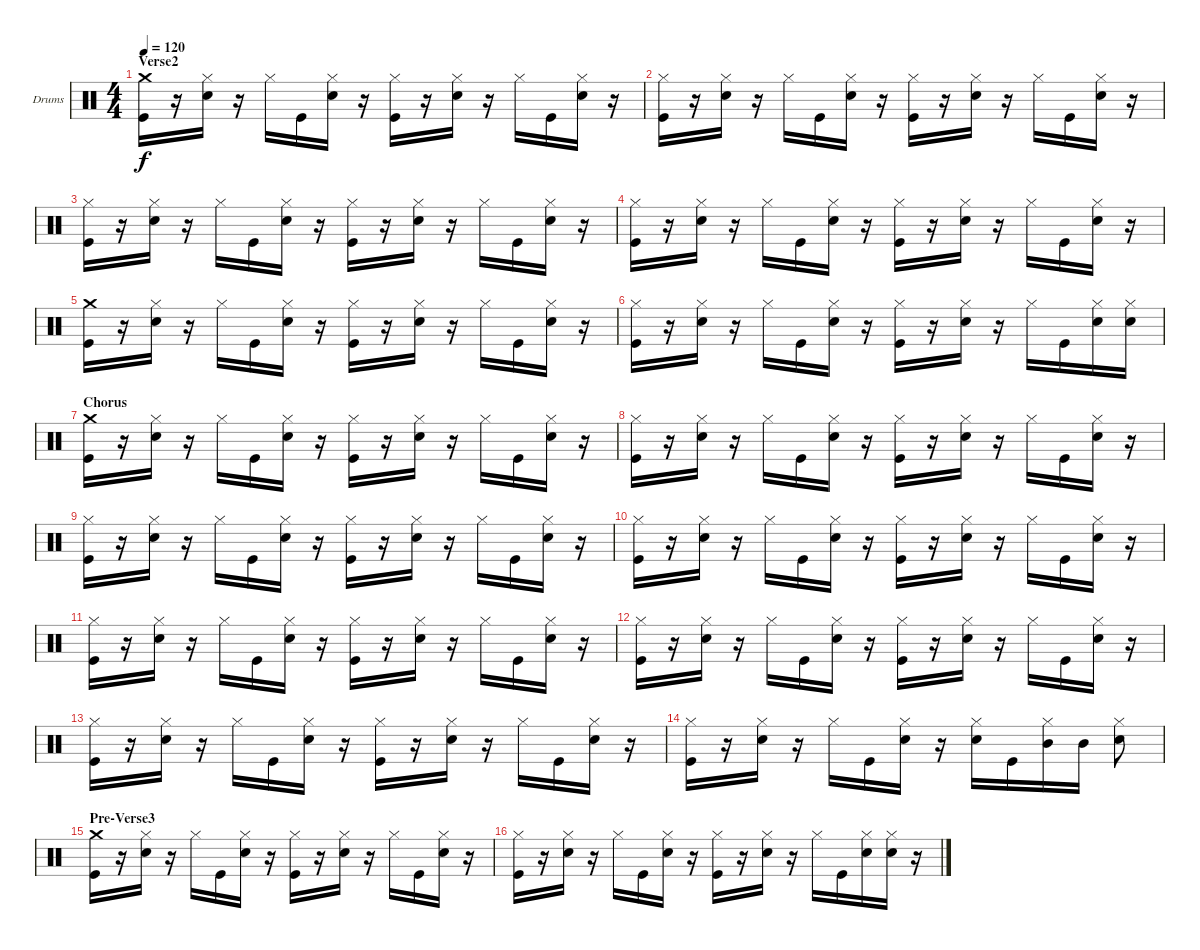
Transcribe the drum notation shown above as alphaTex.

\defaultSystemsLayout 4
\bracketExtendMode groupsimilarinstruments
\firstSystemTrackNameOrientation horizontal
\otherSystemsTrackNameOrientation horizontal
\track ("Jerinx" "Drums") {instrument percussion}
\staff {score}
\articulation defaults
\ts (4 4)
\section ("" "Verse2")
\tempo 120
\clef neutral
\ks c
("Kick (hit)" "Crash medium (hit)").16{dy f} r.16 ("Snare (hit) 2" "Hi-Hat (closed)").16 r.16 "Hi-Hat (closed)".16 "Kick (hit)".16 ("Snare (hit) 2" "Hi-Hat (closed)").16 r.16 ("Kick (hit)" "Hi-Hat (closed)").16 r.16 ("Snare (hit) 2" "Hi-Hat (closed)").16 r.16 "Hi-Hat (closed)".16 "Kick (hit)".16 ("Snare (hit) 2" "Hi-Hat (closed)").16 r.16 |
("Kick (hit)" "Hi-Hat (closed)").16 r.16 ("Snare (hit) 2" "Hi-Hat (closed)").16 r.16 "Hi-Hat (closed)".16 "Kick (hit)".16 ("Snare (hit) 2" "Hi-Hat (closed)").16 r.16 ("Kick (hit)" "Hi-Hat (closed)").16 r.16 ("Snare (hit) 2" "Hi-Hat (closed)").16 r.16 "Hi-Hat (closed)".16 "Kick (hit)".16 ("Snare (hit) 2" "Hi-Hat (closed)").16 r.16 |
("Kick (hit)" "Hi-Hat (closed)").16 r.16 ("Snare (hit) 2" "Hi-Hat (closed)").16 r.16 "Hi-Hat (closed)".16 "Kick (hit)".16 ("Snare (hit) 2" "Hi-Hat (closed)").16 r.16 ("Kick (hit)" "Hi-Hat (closed)").16 r.16 ("Snare (hit) 2" "Hi-Hat (closed)").16 r.16 "Hi-Hat (closed)".16 "Kick (hit)".16 ("Snare (hit) 2" "Hi-Hat (closed)").16 r.16 |
("Kick (hit)" "Hi-Hat (closed)").16 r.16 ("Snare (hit) 2" "Hi-Hat (closed)").16 r.16 "Hi-Hat (closed)".16 "Kick (hit)".16 ("Snare (hit) 2" "Hi-Hat (closed)").16 r.16 ("Kick (hit)" "Hi-Hat (closed)").16 r.16 ("Snare (hit) 2" "Hi-Hat (closed)").16 r.16 "Hi-Hat (closed)".16 "Kick (hit)".16 ("Snare (hit) 2" "Hi-Hat (closed)").16 r.16 |
("Kick (hit)" "Crash medium (hit)").16 r.16 ("Snare (hit) 2" "Hi-Hat (closed)").16 r.16 "Hi-Hat (closed)".16 "Kick (hit)".16 ("Snare (hit) 2" "Hi-Hat (closed)").16 r.16 ("Kick (hit)" "Hi-Hat (closed)").16 r.16 ("Snare (hit) 2" "Hi-Hat (closed)").16 r.16 "Hi-Hat (closed)".16 "Kick (hit)".16 ("Snare (hit) 2" "Hi-Hat (closed)").16 r.16 |
("Kick (hit)" "Hi-Hat (closed)").16 r.16 ("Snare (hit) 2" "Hi-Hat (closed)").16 r.16 "Hi-Hat (closed)".16 "Kick (hit)".16 ("Snare (hit) 2" "Hi-Hat (closed)").16 r.16 ("Kick (hit)" "Hi-Hat (closed)").16 r.16 ("Snare (hit) 2" "Hi-Hat (closed)").16 r.16 "Hi-Hat (closed)".16 "Kick (hit)".16 ("Snare (hit) 2" "Hi-Hat (closed)").16 ("Snare (hit) 2" "Hi-Hat (closed)").16 |
\section ("" "Chorus")
("Kick (hit)" "Crash medium (hit)").16 r.16 ("Snare (hit) 2" "Hi-Hat (closed)").16 r.16 "Hi-Hat (closed)".16 "Kick (hit)".16 ("Snare (hit) 2" "Hi-Hat (closed)").16 r.16 ("Kick (hit)" "Hi-Hat (closed)").16 r.16 ("Snare (hit) 2" "Hi-Hat (closed)").16 r.16 "Hi-Hat (closed)".16 "Kick (hit)".16 ("Snare (hit) 2" "Hi-Hat (closed)").16 r.16 |
("Kick (hit)" "Hi-Hat (closed)").16 r.16 ("Snare (hit) 2" "Hi-Hat (closed)").16 r.16 "Hi-Hat (closed)".16 "Kick (hit)".16 ("Snare (hit) 2" "Hi-Hat (closed)").16 r.16 ("Kick (hit)" "Hi-Hat (closed)").16 r.16 ("Snare (hit) 2" "Hi-Hat (closed)").16 r.16 "Hi-Hat (closed)".16 "Kick (hit)".16 ("Snare (hit) 2" "Hi-Hat (closed)").16 r.16 |
("Kick (hit)" "Hi-Hat (closed)").16 r.16 ("Snare (hit) 2" "Hi-Hat (closed)").16 r.16 "Hi-Hat (closed)".16 "Kick (hit)".16 ("Snare (hit) 2" "Hi-Hat (closed)").16 r.16 ("Kick (hit)" "Hi-Hat (closed)").16 r.16 ("Snare (hit) 2" "Hi-Hat (closed)").16 r.16 "Hi-Hat (closed)".16 "Kick (hit)".16 ("Snare (hit) 2" "Hi-Hat (closed)").16 r.16 |
("Kick (hit)" "Hi-Hat (closed)").16 r.16 ("Snare (hit) 2" "Hi-Hat (closed)").16 r.16 "Hi-Hat (closed)".16 "Kick (hit)".16 ("Snare (hit) 2" "Hi-Hat (closed)").16 r.16 ("Kick (hit)" "Hi-Hat (closed)").16 r.16 ("Snare (hit) 2" "Hi-Hat (closed)").16 r.16 "Hi-Hat (closed)".16 "Kick (hit)".16 ("Snare (hit) 2" "Hi-Hat (closed)").16 r.16 |
("Kick (hit)" "Hi-Hat (closed)").16 r.16 ("Snare (hit) 2" "Hi-Hat (closed)").16 r.16 "Hi-Hat (closed)".16 "Kick (hit)".16 ("Snare (hit) 2" "Hi-Hat (closed)").16 r.16 ("Kick (hit)" "Hi-Hat (closed)").16 r.16 ("Snare (hit) 2" "Hi-Hat (closed)").16 r.16 "Hi-Hat (closed)".16 "Kick (hit)".16 ("Snare (hit) 2" "Hi-Hat (closed)").16 r.16 |
("Kick (hit)" "Hi-Hat (closed)").16 r.16 ("Snare (hit) 2" "Hi-Hat (closed)").16 r.16 "Hi-Hat (closed)".16 "Kick (hit)".16 ("Snare (hit) 2" "Hi-Hat (closed)").16 r.16 ("Kick (hit)" "Hi-Hat (closed)").16 r.16 ("Snare (hit) 2" "Hi-Hat (closed)").16 r.16 "Hi-Hat (closed)".16 "Kick (hit)".16 ("Snare (hit) 2" "Hi-Hat (closed)").16 r.16 |
("Kick (hit)" "Hi-Hat (closed)").16 r.16 ("Snare (hit) 2" "Hi-Hat (closed)").16 r.16 "Hi-Hat (closed)".16 "Kick (hit)".16 ("Snare (hit) 2" "Hi-Hat (closed)").16 r.16 ("Kick (hit)" "Hi-Hat (closed)").16 r.16 ("Snare (hit) 2" "Hi-Hat (closed)").16 r.16 "Hi-Hat (closed)".16 "Kick (hit)".16 ("Snare (hit) 2" "Hi-Hat (closed)").16 r.16 |
("Kick (hit)" "Hi-Hat (closed)").16 r.16 ("Snare (hit) 2" "Hi-Hat (closed)").16 r.16 "Hi-Hat (closed)".16 "Kick (hit)".16 ("Snare (hit) 2" "Hi-Hat (closed)").16 r.16 ("Hi-Hat (closed)" "Snare (hit) 2").16 "Kick (hit)".16 ("Hi-Hat (closed)" "Mid Tom (hit)").16 "Mid Tom (hit)".16 ("Snare (hit) 2" "Hi-Hat (closed)").8 |
\section ("" "Pre-Verse3")
("Kick (hit)" "Crash medium (hit)").16 r.16 ("Snare (hit) 2" "Hi-Hat (closed)").16 r.16 "Hi-Hat (closed)".16 "Kick (hit)".16 ("Snare (hit) 2" "Hi-Hat (closed)").16 r.16 ("Kick (hit)" "Hi-Hat (closed)").16 r.16 ("Snare (hit) 2" "Hi-Hat (closed)").16 r.16 "Hi-Hat (closed)".16 "Kick (hit)".16 ("Snare (hit) 2" "Hi-Hat (closed)").16 r.16 |
("Kick (hit)" "Hi-Hat (closed)").16 r.16 ("Snare (hit) 2" "Hi-Hat (closed)").16 r.16 "Hi-Hat (closed)".16 "Kick (hit)".16 ("Snare (hit) 2" "Hi-Hat (closed)").16 r.16 ("Kick (hit)" "Hi-Hat (closed)").16 r.16 ("Snare (hit) 2" "Hi-Hat (closed)").16 r.16 "Hi-Hat (closed)".16 "Kick (hit)".16 ("Snare (hit) 2" "Hi-Hat (closed)").16 ("Snare (hit) 2" "Hi-Hat (closed)").16 r.16
